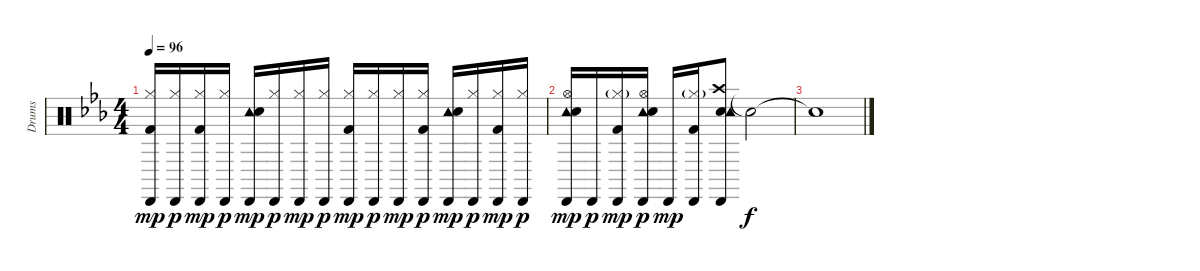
\track ("Drums" "Drums") {instrument percussion}
\staff {score}
\articulation defaults
\ts (4 4)
\tempo 96
\clef neutral
\ks eb
("Kick (hit) 2" "Cabasa (hit)" "Hi-Hat (closed)").16{dy mp} ("Cabasa (hit)" "Hi-Hat (closed)").16{dy p} ("Kick (hit) 2" "Cabasa (hit)" "Hi-Hat (closed)").16{dy mp} ("Cabasa (hit)" "Hi-Hat (closed)").16{dy p} ("Tambourine (hit)" "Cabasa (hit)" "Snare (hit) 2").16{dy mp} ("Cabasa (hit)" "Hi-Hat (closed)").16{dy p} ("Cabasa (hit)" "Hi-Hat (closed)").16{dy mp} ("Cabasa (hit)" "Hi-Hat (closed)").16{dy p} ("Kick (hit) 2" "Cabasa (hit)" "Hi-Hat (closed)").16{dy mp} ("Cabasa (hit)" "Hi-Hat (closed)").16{dy p} ("Cabasa (hit)" "Hi-Hat (closed)").16{dy mp} ("Kick (hit) 2" "Cabasa (hit)" "Hi-Hat (closed)").16{dy p} ("Tambourine (hit)" "Cabasa (hit)" "Snare (hit) 2").16{dy mp} ("Cabasa (hit)" "Hi-Hat (closed)").16{dy p} ("Kick (hit) 2" "Cabasa (hit)" "Hi-Hat (closed)").16{dy mp} ("Cabasa (hit)" "Hi-Hat (closed)").16{dy p} |
("Tambourine (hit)" "Cabasa (hit)" "Snare (hit) 2" "Hi-Hat (open)").16{dy mp} "Cabasa (hit)".16{dy p} ("Kick (hit) 2" "Cabasa (hit)" "Hi-Hat (closed)"{g}).16{dy mp} ("Tambourine (hit)" "Cabasa (hit)" "Snare (hit) 2" "Hi-Hat (open)").16{dy p} "Cabasa (hit)".16{dy mp} ("Kick (hit) 2" "Cabasa (hit)" "Hi-Hat (closed)"{g}).16 ("Crash high (hit)" "Cabasa (hit)" "Snare (hit) 2" "Tambourine (hit)").8 "Snare (hit)"{t}.2{dy f} |
"Snare (hit)"{t}.1
